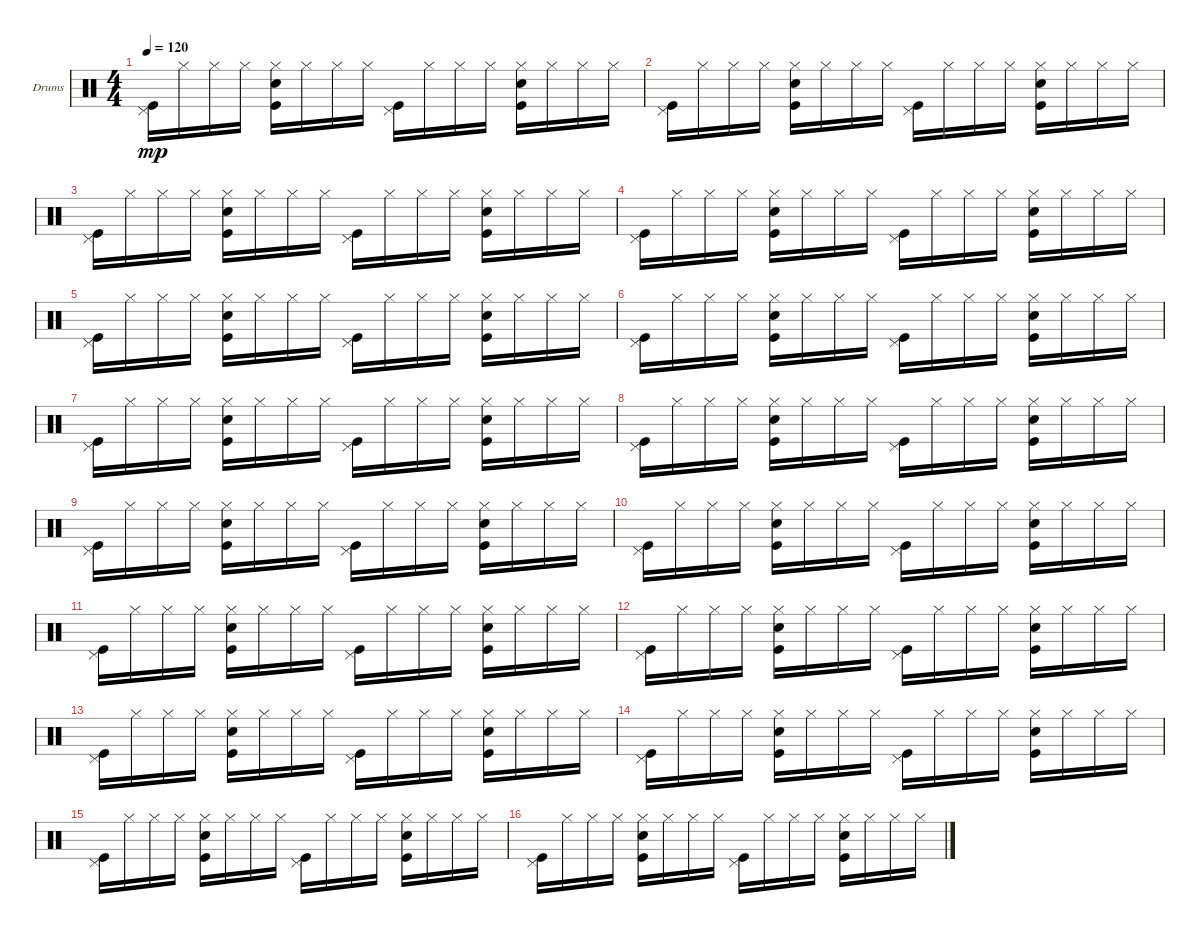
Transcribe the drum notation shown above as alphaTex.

\bracketExtendMode groupsimilarinstruments
\firstSystemTrackNameOrientation horizontal
\otherSystemsTrackNameOrientation horizontal
\track ("Ударные" "Drums") {instrument percussion}
\staff {score}
\articulation defaults
\ts (4 4)
\tempo 120
\clef neutral
\ks c
("Pedal Hi-Hat (hit)" "Kick (hit)").16{dy mp} "Hi-Hat (closed)".16 "Hi-Hat (closed)".16 "Hi-Hat (closed)".16 ("Hi-Hat (closed)" "Snare (hit) 2" "Kick (hit)").16 "Hi-Hat (closed)".16 "Hi-Hat (closed)".16 "Hi-Hat (closed)".16 ("Pedal Hi-Hat (hit)" "Kick (hit)").16 "Hi-Hat (closed)".16 "Hi-Hat (closed)".16 "Hi-Hat (closed)".16 ("Hi-Hat (closed)" "Snare (hit) 2" "Kick (hit)").16 "Hi-Hat (closed)".16 "Hi-Hat (closed)".16 "Hi-Hat (closed)".16 |
("Pedal Hi-Hat (hit)" "Kick (hit)").16 "Hi-Hat (closed)".16 "Hi-Hat (closed)".16 "Hi-Hat (closed)".16 ("Hi-Hat (closed)" "Snare (hit) 2" "Kick (hit)").16 "Hi-Hat (closed)".16 "Hi-Hat (closed)".16 "Hi-Hat (closed)".16 ("Pedal Hi-Hat (hit)" "Kick (hit)").16 "Hi-Hat (closed)".16 "Hi-Hat (closed)".16 "Hi-Hat (closed)".16 ("Hi-Hat (closed)" "Snare (hit) 2" "Kick (hit)").16 "Hi-Hat (closed)".16 "Hi-Hat (closed)".16 "Hi-Hat (closed)".16 |
("Pedal Hi-Hat (hit)" "Kick (hit)").16 "Hi-Hat (closed)".16 "Hi-Hat (closed)".16 "Hi-Hat (closed)".16 ("Hi-Hat (closed)" "Snare (hit) 2" "Kick (hit)").16 "Hi-Hat (closed)".16 "Hi-Hat (closed)".16 "Hi-Hat (closed)".16 ("Pedal Hi-Hat (hit)" "Kick (hit)").16 "Hi-Hat (closed)".16 "Hi-Hat (closed)".16 "Hi-Hat (closed)".16 ("Hi-Hat (closed)" "Snare (hit) 2" "Kick (hit)").16 "Hi-Hat (closed)".16 "Hi-Hat (closed)".16 "Hi-Hat (closed)".16 |
("Pedal Hi-Hat (hit)" "Kick (hit)").16 "Hi-Hat (closed)".16 "Hi-Hat (closed)".16 "Hi-Hat (closed)".16 ("Hi-Hat (closed)" "Snare (hit) 2" "Kick (hit)").16 "Hi-Hat (closed)".16 "Hi-Hat (closed)".16 "Hi-Hat (closed)".16 ("Pedal Hi-Hat (hit)" "Kick (hit)").16 "Hi-Hat (closed)".16 "Hi-Hat (closed)".16 "Hi-Hat (closed)".16 ("Hi-Hat (closed)" "Snare (hit) 2" "Kick (hit)").16 "Hi-Hat (closed)".16 "Hi-Hat (closed)".16 "Hi-Hat (closed)".16 |
("Pedal Hi-Hat (hit)" "Kick (hit)").16 "Hi-Hat (closed)".16 "Hi-Hat (closed)".16 "Hi-Hat (closed)".16 ("Hi-Hat (closed)" "Snare (hit) 2" "Kick (hit)").16 "Hi-Hat (closed)".16 "Hi-Hat (closed)".16 "Hi-Hat (closed)".16 ("Pedal Hi-Hat (hit)" "Kick (hit)").16 "Hi-Hat (closed)".16 "Hi-Hat (closed)".16 "Hi-Hat (closed)".16 ("Hi-Hat (closed)" "Snare (hit) 2" "Kick (hit)").16 "Hi-Hat (closed)".16 "Hi-Hat (closed)".16 "Hi-Hat (closed)".16 |
("Pedal Hi-Hat (hit)" "Kick (hit)").16 "Hi-Hat (closed)".16 "Hi-Hat (closed)".16 "Hi-Hat (closed)".16 ("Hi-Hat (closed)" "Snare (hit) 2" "Kick (hit)").16 "Hi-Hat (closed)".16 "Hi-Hat (closed)".16 "Hi-Hat (closed)".16 ("Pedal Hi-Hat (hit)" "Kick (hit)").16 "Hi-Hat (closed)".16 "Hi-Hat (closed)".16 "Hi-Hat (closed)".16 ("Hi-Hat (closed)" "Snare (hit) 2" "Kick (hit)").16 "Hi-Hat (closed)".16 "Hi-Hat (closed)".16 "Hi-Hat (closed)".16 |
("Pedal Hi-Hat (hit)" "Kick (hit)").16 "Hi-Hat (closed)".16 "Hi-Hat (closed)".16 "Hi-Hat (closed)".16 ("Hi-Hat (closed)" "Snare (hit) 2" "Kick (hit)").16 "Hi-Hat (closed)".16 "Hi-Hat (closed)".16 "Hi-Hat (closed)".16 ("Pedal Hi-Hat (hit)" "Kick (hit)").16 "Hi-Hat (closed)".16 "Hi-Hat (closed)".16 "Hi-Hat (closed)".16 ("Hi-Hat (closed)" "Snare (hit) 2" "Kick (hit)").16 "Hi-Hat (closed)".16 "Hi-Hat (closed)".16 "Hi-Hat (closed)".16 |
("Pedal Hi-Hat (hit)" "Kick (hit)").16 "Hi-Hat (closed)".16 "Hi-Hat (closed)".16 "Hi-Hat (closed)".16 ("Hi-Hat (closed)" "Snare (hit) 2" "Kick (hit)").16 "Hi-Hat (closed)".16 "Hi-Hat (closed)".16 "Hi-Hat (closed)".16 ("Pedal Hi-Hat (hit)" "Kick (hit)").16 "Hi-Hat (closed)".16 "Hi-Hat (closed)".16 "Hi-Hat (closed)".16 ("Hi-Hat (closed)" "Snare (hit) 2" "Kick (hit)").16 "Hi-Hat (closed)".16 "Hi-Hat (closed)".16 "Hi-Hat (closed)".16 |
("Pedal Hi-Hat (hit)" "Kick (hit)").16 "Hi-Hat (closed)".16 "Hi-Hat (closed)".16 "Hi-Hat (closed)".16 ("Hi-Hat (closed)" "Snare (hit) 2" "Kick (hit)").16 "Hi-Hat (closed)".16 "Hi-Hat (closed)".16 "Hi-Hat (closed)".16 ("Pedal Hi-Hat (hit)" "Kick (hit)").16 "Hi-Hat (closed)".16 "Hi-Hat (closed)".16 "Hi-Hat (closed)".16 ("Hi-Hat (closed)" "Snare (hit) 2" "Kick (hit)").16 "Hi-Hat (closed)".16 "Hi-Hat (closed)".16 "Hi-Hat (closed)".16 |
("Pedal Hi-Hat (hit)" "Kick (hit)").16 "Hi-Hat (closed)".16 "Hi-Hat (closed)".16 "Hi-Hat (closed)".16 ("Hi-Hat (closed)" "Snare (hit) 2" "Kick (hit)").16 "Hi-Hat (closed)".16 "Hi-Hat (closed)".16 "Hi-Hat (closed)".16 ("Pedal Hi-Hat (hit)" "Kick (hit)").16 "Hi-Hat (closed)".16 "Hi-Hat (closed)".16 "Hi-Hat (closed)".16 ("Hi-Hat (closed)" "Snare (hit) 2" "Kick (hit)").16 "Hi-Hat (closed)".16 "Hi-Hat (closed)".16 "Hi-Hat (closed)".16 |
("Pedal Hi-Hat (hit)" "Kick (hit)").16 "Hi-Hat (closed)".16 "Hi-Hat (closed)".16 "Hi-Hat (closed)".16 ("Hi-Hat (closed)" "Snare (hit) 2" "Kick (hit)").16 "Hi-Hat (closed)".16 "Hi-Hat (closed)".16 "Hi-Hat (closed)".16 ("Pedal Hi-Hat (hit)" "Kick (hit)").16 "Hi-Hat (closed)".16 "Hi-Hat (closed)".16 "Hi-Hat (closed)".16 ("Hi-Hat (closed)" "Snare (hit) 2" "Kick (hit)").16 "Hi-Hat (closed)".16 "Hi-Hat (closed)".16 "Hi-Hat (closed)".16 |
("Pedal Hi-Hat (hit)" "Kick (hit)").16 "Hi-Hat (closed)".16 "Hi-Hat (closed)".16 "Hi-Hat (closed)".16 ("Hi-Hat (closed)" "Snare (hit) 2" "Kick (hit)").16 "Hi-Hat (closed)".16 "Hi-Hat (closed)".16 "Hi-Hat (closed)".16 ("Pedal Hi-Hat (hit)" "Kick (hit)").16 "Hi-Hat (closed)".16 "Hi-Hat (closed)".16 "Hi-Hat (closed)".16 ("Hi-Hat (closed)" "Snare (hit) 2" "Kick (hit)").16 "Hi-Hat (closed)".16 "Hi-Hat (closed)".16 "Hi-Hat (closed)".16 |
("Pedal Hi-Hat (hit)" "Kick (hit)").16 "Hi-Hat (closed)".16 "Hi-Hat (closed)".16 "Hi-Hat (closed)".16 ("Hi-Hat (closed)" "Snare (hit) 2" "Kick (hit)").16 "Hi-Hat (closed)".16 "Hi-Hat (closed)".16 "Hi-Hat (closed)".16 ("Pedal Hi-Hat (hit)" "Kick (hit)").16 "Hi-Hat (closed)".16 "Hi-Hat (closed)".16 "Hi-Hat (closed)".16 ("Hi-Hat (closed)" "Snare (hit) 2" "Kick (hit)").16 "Hi-Hat (closed)".16 "Hi-Hat (closed)".16 "Hi-Hat (closed)".16 |
("Pedal Hi-Hat (hit)" "Kick (hit)").16 "Hi-Hat (closed)".16 "Hi-Hat (closed)".16 "Hi-Hat (closed)".16 ("Hi-Hat (closed)" "Snare (hit) 2" "Kick (hit)").16 "Hi-Hat (closed)".16 "Hi-Hat (closed)".16 "Hi-Hat (closed)".16 ("Pedal Hi-Hat (hit)" "Kick (hit)").16 "Hi-Hat (closed)".16 "Hi-Hat (closed)".16 "Hi-Hat (closed)".16 ("Hi-Hat (closed)" "Snare (hit) 2" "Kick (hit)").16 "Hi-Hat (closed)".16 "Hi-Hat (closed)".16 "Hi-Hat (closed)".16 |
("Pedal Hi-Hat (hit)" "Kick (hit)").16 "Hi-Hat (closed)".16 "Hi-Hat (closed)".16 "Hi-Hat (closed)".16 ("Hi-Hat (closed)" "Snare (hit) 2" "Kick (hit)").16 "Hi-Hat (closed)".16 "Hi-Hat (closed)".16 "Hi-Hat (closed)".16 ("Pedal Hi-Hat (hit)" "Kick (hit)").16 "Hi-Hat (closed)".16 "Hi-Hat (closed)".16 "Hi-Hat (closed)".16 ("Hi-Hat (closed)" "Snare (hit) 2" "Kick (hit)").16 "Hi-Hat (closed)".16 "Hi-Hat (closed)".16 "Hi-Hat (closed)".16 |
("Pedal Hi-Hat (hit)" "Kick (hit)").16 "Hi-Hat (closed)".16 "Hi-Hat (closed)".16 "Hi-Hat (closed)".16 ("Hi-Hat (closed)" "Snare (hit) 2" "Kick (hit)").16 "Hi-Hat (closed)".16 "Hi-Hat (closed)".16 "Hi-Hat (closed)".16 ("Pedal Hi-Hat (hit)" "Kick (hit)").16 "Hi-Hat (closed)".16 "Hi-Hat (closed)".16 "Hi-Hat (closed)".16 ("Hi-Hat (closed)" "Snare (hit) 2" "Kick (hit)").16 "Hi-Hat (closed)".16 "Hi-Hat (closed)".16 "Hi-Hat (closed)".16
